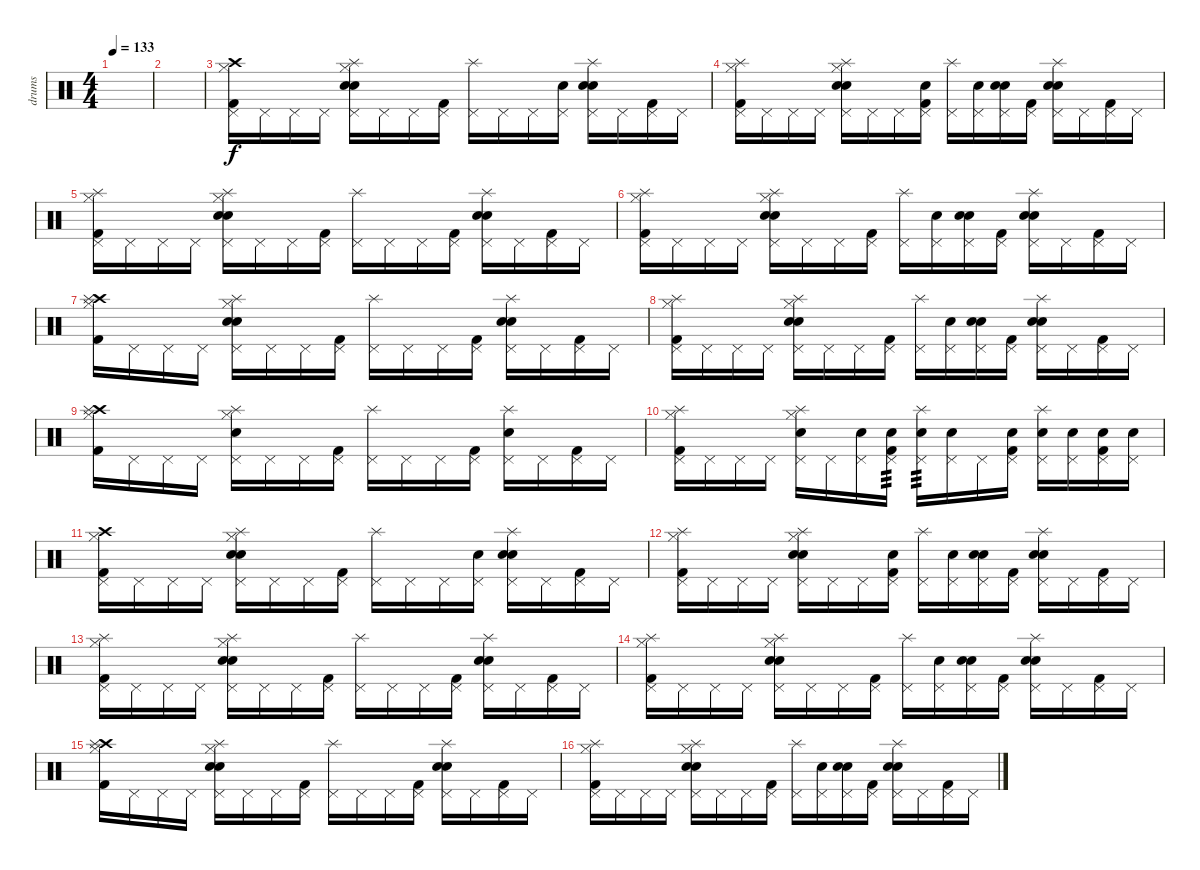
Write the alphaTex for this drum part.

\track ("drums" "drums") {instrument percussion}
\staff {score}
\articulation defaults
\ts (4 4)
\tempo 133
\clef neutral
\ks c
|
|
("Kick (hit) 2" "Hi-Hat (closed)" "Pedal Hi-Hat (hit)" "Crash high (hit)").16 "Pedal Hi-Hat (hit)".16 "Pedal Hi-Hat (hit)".16 "Pedal Hi-Hat (hit)".16 ("Snare (hit) 2" "Hi-Hat (closed)" "Pedal Hi-Hat (hit)" "Hand Clap (hit)" "Splash (hit)").16 "Pedal Hi-Hat (hit)".16 "Pedal Hi-Hat (hit)".16 ("Kick (hit) 2" "Pedal Hi-Hat (hit)").16 ("Pedal Hi-Hat (hit)" "Splash (hit)").16 "Pedal Hi-Hat (hit)".16 "Pedal Hi-Hat (hit)".16 ("Pedal Hi-Hat (hit)" "Hand Clap (hit)").16 ("Snare (hit) 2" "Pedal Hi-Hat (hit)" "Hand Clap (hit)" "Splash (hit)").16 "Pedal Hi-Hat (hit)".16 ("Kick (hit) 2" "Pedal Hi-Hat (hit)").16 "Pedal Hi-Hat (hit)".16 |
("Kick (hit) 2" "Hi-Hat (closed)" "Pedal Hi-Hat (hit)" "Splash (hit)").16 "Pedal Hi-Hat (hit)".16 "Pedal Hi-Hat (hit)".16 "Pedal Hi-Hat (hit)".16 ("Snare (hit) 2" "Hi-Hat (closed)" "Pedal Hi-Hat (hit)" "Hand Clap (hit)" "Splash (hit)").16 "Pedal Hi-Hat (hit)".16 "Pedal Hi-Hat (hit)".16 ("Kick (hit) 2" "Pedal Hi-Hat (hit)" "Hand Clap (hit)").16 ("Pedal Hi-Hat (hit)" "Splash (hit)").16 ("Snare (hit) 2" "Pedal Hi-Hat (hit)").16 ("Snare (hit) 2" "Pedal Hi-Hat (hit)" "Hand Clap (hit)").16 ("Kick (hit) 2" "Pedal Hi-Hat (hit)").16 ("Snare (hit) 2" "Pedal Hi-Hat (hit)" "Hand Clap (hit)" "Splash (hit)").16 "Pedal Hi-Hat (hit)".16 ("Kick (hit) 2" "Pedal Hi-Hat (hit)").16 "Pedal Hi-Hat (hit)".16 |
("Kick (hit) 2" "Hi-Hat (closed)" "Pedal Hi-Hat (hit)" "Splash (hit)").16 "Pedal Hi-Hat (hit)".16 "Pedal Hi-Hat (hit)".16 "Pedal Hi-Hat (hit)".16 ("Snare (hit) 2" "Hi-Hat (closed)" "Pedal Hi-Hat (hit)" "Hand Clap (hit)" "Splash (hit)").16 "Pedal Hi-Hat (hit)".16 "Pedal Hi-Hat (hit)".16 ("Kick (hit) 2" "Pedal Hi-Hat (hit)").16 ("Pedal Hi-Hat (hit)" "Splash (hit)").16 "Pedal Hi-Hat (hit)".16 "Pedal Hi-Hat (hit)".16 ("Kick (hit) 2" "Pedal Hi-Hat (hit)").16 ("Snare (hit) 2" "Pedal Hi-Hat (hit)" "Hand Clap (hit)" "Splash (hit)").16 "Pedal Hi-Hat (hit)".16 ("Kick (hit) 2" "Pedal Hi-Hat (hit)").16 "Pedal Hi-Hat (hit)".16 |
("Kick (hit) 2" "Hi-Hat (closed)" "Pedal Hi-Hat (hit)" "Splash (hit)").16 "Pedal Hi-Hat (hit)".16 "Pedal Hi-Hat (hit)".16 "Pedal Hi-Hat (hit)".16 ("Snare (hit) 2" "Hi-Hat (closed)" "Pedal Hi-Hat (hit)" "Hand Clap (hit)" "Splash (hit)").16 "Pedal Hi-Hat (hit)".16 "Pedal Hi-Hat (hit)".16 ("Kick (hit) 2" "Pedal Hi-Hat (hit)").16 ("Pedal Hi-Hat (hit)" "Splash (hit)").16 ("Snare (hit) 2" "Pedal Hi-Hat (hit)").16 ("Snare (hit) 2" "Pedal Hi-Hat (hit)" "Hand Clap (hit)").16 ("Kick (hit) 2" "Pedal Hi-Hat (hit)").16 ("Snare (hit) 2" "Pedal Hi-Hat (hit)" "Hand Clap (hit)" "Splash (hit)").16 "Pedal Hi-Hat (hit)".16 ("Kick (hit) 2" "Pedal Hi-Hat (hit)").16 "Pedal Hi-Hat (hit)".16 |
("Kick (hit) 2" "Hi-Hat (closed)" "Crash high (hit)" "Splash (hit)").16 "Pedal Hi-Hat (hit)".16 "Pedal Hi-Hat (hit)".16 "Pedal Hi-Hat (hit)".16 ("Snare (hit) 2" "Hi-Hat (closed)" "Pedal Hi-Hat (hit)" "Hand Clap (hit)" "Splash (hit)").16 "Pedal Hi-Hat (hit)".16 "Pedal Hi-Hat (hit)".16 ("Kick (hit) 2" "Pedal Hi-Hat (hit)").16 ("Pedal Hi-Hat (hit)" "Splash (hit)").16 "Pedal Hi-Hat (hit)".16 "Pedal Hi-Hat (hit)".16 ("Kick (hit) 2" "Pedal Hi-Hat (hit)").16 ("Snare (hit) 2" "Pedal Hi-Hat (hit)" "Hand Clap (hit)" "Splash (hit)").16 "Pedal Hi-Hat (hit)".16 ("Kick (hit) 2" "Pedal Hi-Hat (hit)").16 "Pedal Hi-Hat (hit)".16 |
("Kick (hit) 2" "Hi-Hat (closed)" "Pedal Hi-Hat (hit)" "Splash (hit)").16 "Pedal Hi-Hat (hit)".16 "Pedal Hi-Hat (hit)".16 "Pedal Hi-Hat (hit)".16 ("Snare (hit) 2" "Hi-Hat (closed)" "Pedal Hi-Hat (hit)" "Hand Clap (hit)" "Splash (hit)").16 "Pedal Hi-Hat (hit)".16 "Pedal Hi-Hat (hit)".16 ("Kick (hit) 2" "Pedal Hi-Hat (hit)").16 ("Pedal Hi-Hat (hit)" "Splash (hit)").16 ("Snare (hit) 2" "Pedal Hi-Hat (hit)").16 ("Snare (hit) 2" "Pedal Hi-Hat (hit)" "Hand Clap (hit)").16 ("Kick (hit) 2" "Pedal Hi-Hat (hit)").16 ("Snare (hit) 2" "Pedal Hi-Hat (hit)" "Hand Clap (hit)" "Splash (hit)").16 "Pedal Hi-Hat (hit)".16 ("Kick (hit) 2" "Pedal Hi-Hat (hit)").16 "Pedal Hi-Hat (hit)".16 |
("Kick (hit) 2" "Hi-Hat (closed)" "Crash high (hit)" "Splash (hit)").16 "Pedal Hi-Hat (hit)".16 "Pedal Hi-Hat (hit)".16 "Pedal Hi-Hat (hit)".16 ("Snare (hit) 2" "Hi-Hat (closed)" "Pedal Hi-Hat (hit)" "Splash (hit)").16 "Pedal Hi-Hat (hit)".16 "Pedal Hi-Hat (hit)".16 ("Kick (hit) 2" "Pedal Hi-Hat (hit)").16 ("Pedal Hi-Hat (hit)" "Splash (hit)").16 "Pedal Hi-Hat (hit)".16 "Pedal Hi-Hat (hit)".16 ("Kick (hit) 2" "Pedal Hi-Hat (hit)").16 ("Snare (hit) 2" "Pedal Hi-Hat (hit)" "Splash (hit)").16 "Pedal Hi-Hat (hit)".16 ("Kick (hit) 2" "Pedal Hi-Hat (hit)").16 "Pedal Hi-Hat (hit)".16 |
("Kick (hit) 2" "Hi-Hat (closed)" "Pedal Hi-Hat (hit)" "Splash (hit)").16 "Pedal Hi-Hat (hit)".16 "Pedal Hi-Hat (hit)".16 "Pedal Hi-Hat (hit)".16 ("Snare (hit) 2" "Hi-Hat (closed)" "Pedal Hi-Hat (hit)" "Splash (hit)").16 "Pedal Hi-Hat (hit)".16 ("Snare (hit) 2" "Pedal Hi-Hat (hit)").16 ("Snare (hit) 2" "Kick (hit) 2" "Pedal Hi-Hat (hit)").16{tp 3} ("Snare (hit) 2" "Pedal Hi-Hat (hit)" "Splash (hit)").16{tp 3} ("Snare (hit) 2" "Pedal Hi-Hat (hit)").16 "Pedal Hi-Hat (hit)".16 ("Snare (hit) 2" "Kick (hit) 2" "Pedal Hi-Hat (hit)").16 ("Snare (hit) 2" "Pedal Hi-Hat (hit)" "Splash (hit)").16 ("Snare (hit) 2" "Pedal Hi-Hat (hit)").16 ("Snare (hit) 2" "Kick (hit) 2" "Pedal Hi-Hat (hit)").16 ("Snare (hit) 2" "Pedal Hi-Hat (hit)").16 |
("Kick (hit) 2" "Hi-Hat (closed)" "Pedal Hi-Hat (hit)" "Crash high (hit)").16 "Pedal Hi-Hat (hit)".16 "Pedal Hi-Hat (hit)".16 "Pedal Hi-Hat (hit)".16 ("Snare (hit) 2" "Hi-Hat (closed)" "Pedal Hi-Hat (hit)" "Hand Clap (hit)" "Splash (hit)").16 "Pedal Hi-Hat (hit)".16 "Pedal Hi-Hat (hit)".16 ("Kick (hit) 2" "Pedal Hi-Hat (hit)").16 ("Pedal Hi-Hat (hit)" "Splash (hit)").16 "Pedal Hi-Hat (hit)".16 "Pedal Hi-Hat (hit)".16 ("Pedal Hi-Hat (hit)" "Hand Clap (hit)").16 ("Snare (hit) 2" "Pedal Hi-Hat (hit)" "Hand Clap (hit)" "Splash (hit)").16 "Pedal Hi-Hat (hit)".16 ("Kick (hit) 2" "Pedal Hi-Hat (hit)").16 "Pedal Hi-Hat (hit)".16 |
("Kick (hit) 2" "Hi-Hat (closed)" "Pedal Hi-Hat (hit)" "Splash (hit)").16 "Pedal Hi-Hat (hit)".16 "Pedal Hi-Hat (hit)".16 "Pedal Hi-Hat (hit)".16 ("Snare (hit) 2" "Hi-Hat (closed)" "Pedal Hi-Hat (hit)" "Hand Clap (hit)" "Splash (hit)").16 "Pedal Hi-Hat (hit)".16 "Pedal Hi-Hat (hit)".16 ("Kick (hit) 2" "Pedal Hi-Hat (hit)" "Hand Clap (hit)").16 ("Pedal Hi-Hat (hit)" "Splash (hit)").16 ("Snare (hit) 2" "Pedal Hi-Hat (hit)").16 ("Snare (hit) 2" "Pedal Hi-Hat (hit)" "Hand Clap (hit)").16 ("Kick (hit) 2" "Pedal Hi-Hat (hit)").16 ("Snare (hit) 2" "Pedal Hi-Hat (hit)" "Hand Clap (hit)" "Splash (hit)").16 "Pedal Hi-Hat (hit)".16 ("Kick (hit) 2" "Pedal Hi-Hat (hit)").16 "Pedal Hi-Hat (hit)".16 |
("Kick (hit) 2" "Hi-Hat (closed)" "Pedal Hi-Hat (hit)" "Splash (hit)").16 "Pedal Hi-Hat (hit)".16 "Pedal Hi-Hat (hit)".16 "Pedal Hi-Hat (hit)".16 ("Snare (hit) 2" "Hi-Hat (closed)" "Pedal Hi-Hat (hit)" "Hand Clap (hit)" "Splash (hit)").16 "Pedal Hi-Hat (hit)".16 "Pedal Hi-Hat (hit)".16 ("Kick (hit) 2" "Pedal Hi-Hat (hit)").16 ("Pedal Hi-Hat (hit)" "Splash (hit)").16 "Pedal Hi-Hat (hit)".16 "Pedal Hi-Hat (hit)".16 ("Kick (hit) 2" "Pedal Hi-Hat (hit)").16 ("Snare (hit) 2" "Pedal Hi-Hat (hit)" "Hand Clap (hit)" "Splash (hit)").16 "Pedal Hi-Hat (hit)".16 ("Kick (hit) 2" "Pedal Hi-Hat (hit)").16 "Pedal Hi-Hat (hit)".16 |
("Kick (hit) 2" "Hi-Hat (closed)" "Pedal Hi-Hat (hit)" "Splash (hit)").16 "Pedal Hi-Hat (hit)".16 "Pedal Hi-Hat (hit)".16 "Pedal Hi-Hat (hit)".16 ("Snare (hit) 2" "Hi-Hat (closed)" "Pedal Hi-Hat (hit)" "Hand Clap (hit)" "Splash (hit)").16 "Pedal Hi-Hat (hit)".16 "Pedal Hi-Hat (hit)".16 ("Kick (hit) 2" "Pedal Hi-Hat (hit)").16 ("Pedal Hi-Hat (hit)" "Splash (hit)").16 ("Snare (hit) 2" "Pedal Hi-Hat (hit)").16 ("Snare (hit) 2" "Pedal Hi-Hat (hit)" "Hand Clap (hit)").16 ("Kick (hit) 2" "Pedal Hi-Hat (hit)").16 ("Snare (hit) 2" "Pedal Hi-Hat (hit)" "Hand Clap (hit)" "Splash (hit)").16 "Pedal Hi-Hat (hit)".16 ("Kick (hit) 2" "Pedal Hi-Hat (hit)").16 "Pedal Hi-Hat (hit)".16 |
("Kick (hit) 2" "Hi-Hat (closed)" "Crash high (hit)" "Splash (hit)").16 "Pedal Hi-Hat (hit)".16 "Pedal Hi-Hat (hit)".16 "Pedal Hi-Hat (hit)".16 ("Snare (hit) 2" "Hi-Hat (closed)" "Pedal Hi-Hat (hit)" "Hand Clap (hit)" "Splash (hit)").16 "Pedal Hi-Hat (hit)".16 "Pedal Hi-Hat (hit)".16 ("Kick (hit) 2" "Pedal Hi-Hat (hit)").16 ("Pedal Hi-Hat (hit)" "Splash (hit)").16 "Pedal Hi-Hat (hit)".16 "Pedal Hi-Hat (hit)".16 ("Kick (hit) 2" "Pedal Hi-Hat (hit)").16 ("Snare (hit) 2" "Pedal Hi-Hat (hit)" "Hand Clap (hit)" "Splash (hit)").16 "Pedal Hi-Hat (hit)".16 ("Kick (hit) 2" "Pedal Hi-Hat (hit)").16 "Pedal Hi-Hat (hit)".16 |
("Kick (hit) 2" "Hi-Hat (closed)" "Pedal Hi-Hat (hit)" "Splash (hit)").16 "Pedal Hi-Hat (hit)".16 "Pedal Hi-Hat (hit)".16 "Pedal Hi-Hat (hit)".16 ("Snare (hit) 2" "Hi-Hat (closed)" "Pedal Hi-Hat (hit)" "Hand Clap (hit)" "Splash (hit)").16 "Pedal Hi-Hat (hit)".16 "Pedal Hi-Hat (hit)".16 ("Kick (hit) 2" "Pedal Hi-Hat (hit)").16 ("Pedal Hi-Hat (hit)" "Splash (hit)").16 ("Snare (hit) 2" "Pedal Hi-Hat (hit)").16 ("Snare (hit) 2" "Pedal Hi-Hat (hit)" "Hand Clap (hit)").16 ("Kick (hit) 2" "Pedal Hi-Hat (hit)").16 ("Snare (hit) 2" "Pedal Hi-Hat (hit)" "Hand Clap (hit)" "Splash (hit)").16 "Pedal Hi-Hat (hit)".16 ("Kick (hit) 2" "Pedal Hi-Hat (hit)").16 "Pedal Hi-Hat (hit)".16
